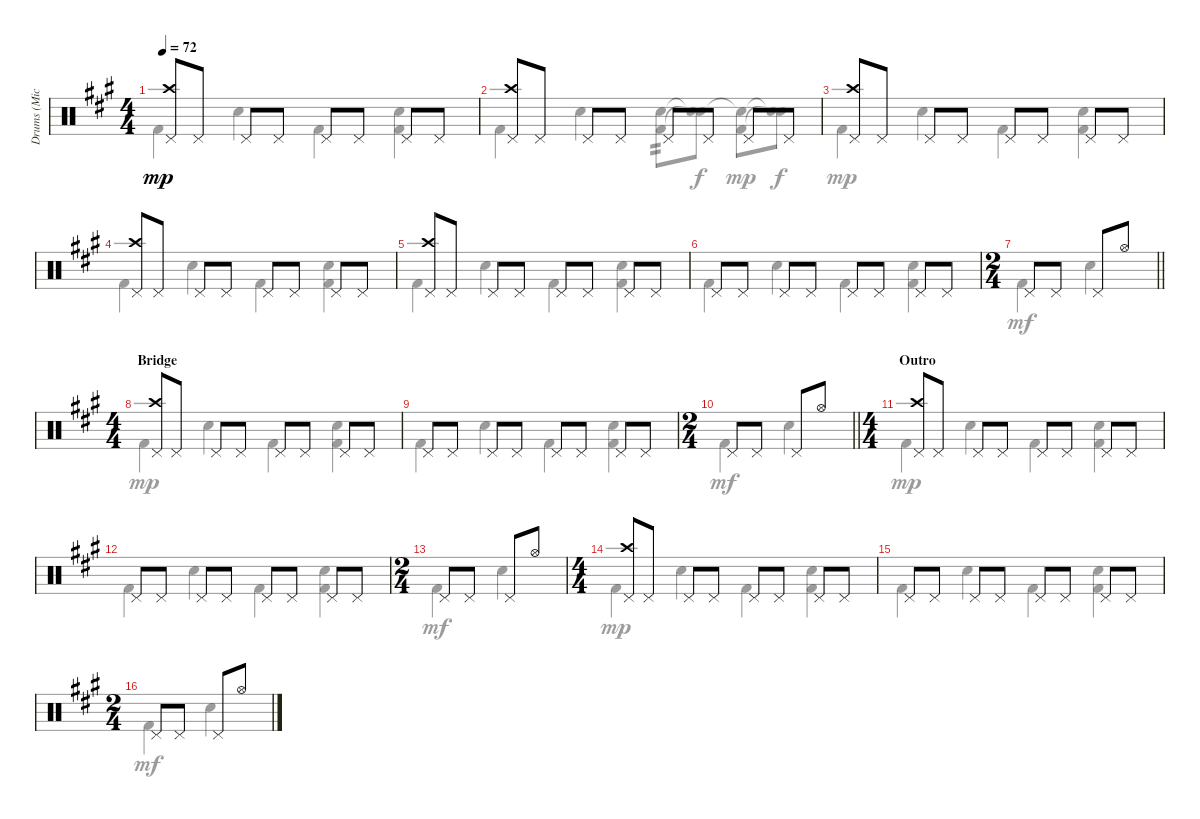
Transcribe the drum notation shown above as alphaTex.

\track ("Drums (Mick Fleetwood)" "Drums (Mic") {instrument percussion}
\staff {score}
\articulation defaults
\voice
\ts (4 4)
\tempo 72
\clef neutral
\ks f#minor
("Crash high (hit)" "Pedal Hi-Hat (hit)").8{dy mp} "Pedal Hi-Hat (hit)".8 "Pedal Hi-Hat (hit)".8 "Pedal Hi-Hat (hit)".8 "Pedal Hi-Hat (hit)".8 "Pedal Hi-Hat (hit)".8 "Pedal Hi-Hat (hit)".8 "Pedal Hi-Hat (hit)".8 |
("Crash high (hit)" "Pedal Hi-Hat (hit)").8 "Pedal Hi-Hat (hit)".8 "Pedal Hi-Hat (hit)".8 "Pedal Hi-Hat (hit)".8 "Pedal Hi-Hat (hit)".8 "Pedal Hi-Hat (hit)".8 "Pedal Hi-Hat (hit)".8 "Pedal Hi-Hat (hit)".8 |
("Crash high (hit)" "Pedal Hi-Hat (hit)").8 "Pedal Hi-Hat (hit)".8 "Pedal Hi-Hat (hit)".8 "Pedal Hi-Hat (hit)".8 "Pedal Hi-Hat (hit)".8 "Pedal Hi-Hat (hit)".8 "Pedal Hi-Hat (hit)".8 "Pedal Hi-Hat (hit)".8 |
("Crash high (hit)" "Pedal Hi-Hat (hit)").8 "Pedal Hi-Hat (hit)".8 "Pedal Hi-Hat (hit)".8 "Pedal Hi-Hat (hit)".8 "Pedal Hi-Hat (hit)".8 "Pedal Hi-Hat (hit)".8 "Pedal Hi-Hat (hit)".8 "Pedal Hi-Hat (hit)".8 |
("Crash high (hit)" "Pedal Hi-Hat (hit)").8 "Pedal Hi-Hat (hit)".8 "Pedal Hi-Hat (hit)".8 "Pedal Hi-Hat (hit)".8 "Pedal Hi-Hat (hit)".8 "Pedal Hi-Hat (hit)".8 "Pedal Hi-Hat (hit)".8 "Pedal Hi-Hat (hit)".8 |
"Pedal Hi-Hat (hit)".8 "Pedal Hi-Hat (hit)".8 "Pedal Hi-Hat (hit)".8 "Pedal Hi-Hat (hit)".8 "Pedal Hi-Hat (hit)".8 "Pedal Hi-Hat (hit)".8 "Pedal Hi-Hat (hit)".8 "Pedal Hi-Hat (hit)".8 |
\ts (2 4)
\barLineRight lightlight "Pedal Hi-Hat (hit)".8 "Pedal Hi-Hat (hit)".8 "Pedal Hi-Hat (hit)".8 "Hi-Hat (open)".8
|
\ts (4 4)
\section ("" "Bridge")
("Crash high (hit)" "Pedal Hi-Hat (hit)").8 "Pedal Hi-Hat (hit)".8 "Pedal Hi-Hat (hit)".8 "Pedal Hi-Hat (hit)".8 "Pedal Hi-Hat (hit)".8 "Pedal Hi-Hat (hit)".8 "Pedal Hi-Hat (hit)".8 "Pedal Hi-Hat (hit)".8 |
"Pedal Hi-Hat (hit)".8 "Pedal Hi-Hat (hit)".8 "Pedal Hi-Hat (hit)".8 "Pedal Hi-Hat (hit)".8 "Pedal Hi-Hat (hit)".8 "Pedal Hi-Hat (hit)".8 "Pedal Hi-Hat (hit)".8 "Pedal Hi-Hat (hit)".8 |
\ts (2 4)
\barLineRight lightlight "Pedal Hi-Hat (hit)".8 "Pedal Hi-Hat (hit)".8 "Pedal Hi-Hat (hit)".8 "Hi-Hat (open)".8
|
\ts (4 4)
\section ("" "Outro")
("Crash high (hit)" "Pedal Hi-Hat (hit)").8 "Pedal Hi-Hat (hit)".8 "Pedal Hi-Hat (hit)".8 "Pedal Hi-Hat (hit)".8 "Pedal Hi-Hat (hit)".8 "Pedal Hi-Hat (hit)".8 "Pedal Hi-Hat (hit)".8 "Pedal Hi-Hat (hit)".8 |
"Pedal Hi-Hat (hit)".8 "Pedal Hi-Hat (hit)".8 "Pedal Hi-Hat (hit)".8 "Pedal Hi-Hat (hit)".8 "Pedal Hi-Hat (hit)".8 "Pedal Hi-Hat (hit)".8 "Pedal Hi-Hat (hit)".8 "Pedal Hi-Hat (hit)".8 |
\ts (2 4)
"Pedal Hi-Hat (hit)".8 "Pedal Hi-Hat (hit)".8 "Pedal Hi-Hat (hit)".8 "Hi-Hat (open)".8 |
\ts (4 4)
("Crash high (hit)" "Pedal Hi-Hat (hit)").8 "Pedal Hi-Hat (hit)".8 "Pedal Hi-Hat (hit)".8 "Pedal Hi-Hat (hit)".8 "Pedal Hi-Hat (hit)".8 "Pedal Hi-Hat (hit)".8 "Pedal Hi-Hat (hit)".8 "Pedal Hi-Hat (hit)".8 |
"Pedal Hi-Hat (hit)".8 "Pedal Hi-Hat (hit)".8 "Pedal Hi-Hat (hit)".8 "Pedal Hi-Hat (hit)".8 "Pedal Hi-Hat (hit)".8 "Pedal Hi-Hat (hit)".8 "Pedal Hi-Hat (hit)".8 "Pedal Hi-Hat (hit)".8 |
\ts (2 4)
"Pedal Hi-Hat (hit)".8 "Pedal Hi-Hat (hit)".8 "Pedal Hi-Hat (hit)".8 "Hi-Hat (open)".8
\voice
\clef neutral
\ottava regular
\simile none
\ks f#minor "Kick (hit) 2".4{dy mp} "Snare (hit) 2".4 "Kick (hit) 2".4
("Snare (hit) 2" "Kick (hit) 2").4 |
"Kick (hit) 2".4 "Snare (hit) 2".4 ("Snare (hit) 2" "Kick (hit) 2").8{tp 2} ("Snare (hit) 2"{t} "Snare (hit)"{t}).8{dy f} ("Snare (hit) 2"{t} "Kick (hit) 2").8{dy mp} ("Snare (hit) 2"{t} "Snare (hit)"{t}).8{dy f} |
"Kick (hit) 2".4{dy mp} "Snare (hit) 2".4 "Kick (hit) 2".4 ("Snare (hit) 2" "Kick (hit) 2").4 |
"Kick (hit) 2".4 "Snare (hit) 2".4 "Kick (hit) 2".4 ("Snare (hit) 2" "Kick (hit) 2").4 |
"Kick (hit) 2".4 "Snare (hit) 2".4 "Kick (hit) 2".4 ("Snare (hit) 2" "Kick (hit) 2").4 |
"Kick (hit) 2".4 "Snare (hit) 2".4 "Kick (hit) 2".4 ("Snare (hit) 2" "Kick (hit) 2").4 |
\barLineRight lightlight "Kick (hit) 2".4{dy mf} "Snare (hit) 2".4
|
"Kick (hit) 2".4{dy mp} "Snare (hit) 2".4 "Kick (hit) 2".4 ("Snare (hit) 2" "Kick (hit) 2").4 |
"Kick (hit) 2".4 "Snare (hit) 2".4 "Kick (hit) 2".4 ("Snare (hit) 2" "Kick (hit) 2").4 |
\barLineRight lightlight "Kick (hit) 2".4{dy mf} "Snare (hit) 2".4
|
"Kick (hit) 2".4{dy mp} "Snare (hit) 2".4 "Kick (hit) 2".4 ("Snare (hit) 2" "Kick (hit) 2").4 |
"Kick (hit) 2".4 "Snare (hit) 2".4 "Kick (hit) 2".4 ("Snare (hit) 2" "Kick (hit) 2").4 |
"Kick (hit) 2".4{dy mf} "Snare (hit) 2".4 |
"Kick (hit) 2".4{dy mp} "Snare (hit) 2".4 "Kick (hit) 2".4 ("Snare (hit) 2" "Kick (hit) 2").4 |
"Kick (hit) 2".4 "Snare (hit) 2".4 "Kick (hit) 2".4 ("Snare (hit) 2" "Kick (hit) 2").4 |
"Kick (hit) 2".4{dy mf} "Snare (hit) 2".4
